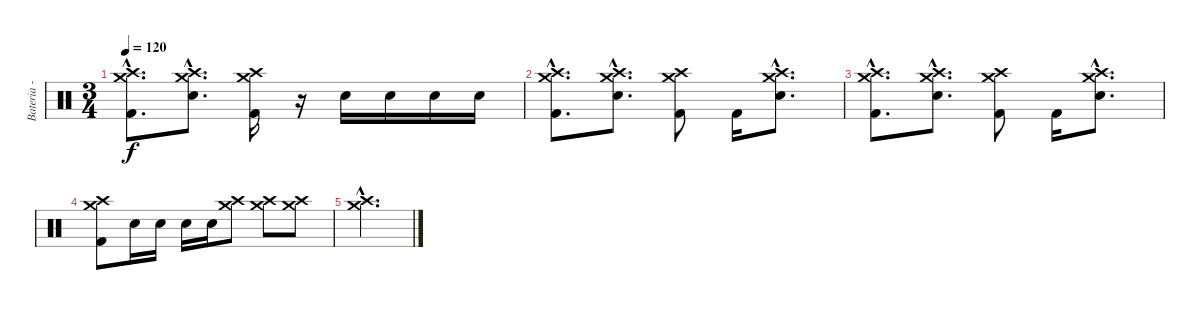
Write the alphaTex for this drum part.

\track ("Bateria - Larzon" "Bateria - ") {instrument percussion}
\staff {score}
\articulation defaults
\ts (3 4)
\tempo 120
\clef neutral
\ks c
("Kick (hit) 2"{hac} "Crash high (hit)"{hac} "Crash medium (hit)"{hac}).8{d dy f} ("Electric Snare (hit)"{hac} "Crash high (hit)"{hac} "Crash medium (hit)"{hac}).8{d} ("Kick (hit) 2" "Crash high (hit)" "Crash medium (hit)").16 r.16 "Electric Snare (hit)".16 "Electric Snare (hit)".16 "Electric Snare (hit)".16 "Electric Snare (hit)".16 |
("Kick (hit) 2"{hac} "Crash medium (hit)"{hac} "Crash high (hit)"{hac}).8{d} ("Electric Snare (hit)"{hac} "Crash medium (hit)"{hac} "Crash high (hit)"{hac}).8{d} ("Kick (hit) 2" "Crash medium (hit)" "Crash high (hit)").8 "Kick (hit) 2".16 ("Electric Snare (hit)"{hac} "Crash medium (hit)"{hac} "Crash high (hit)"{hac}).8{d} |
("Kick (hit) 2"{hac} "Crash medium (hit)"{hac} "Crash high (hit)"{hac}).8{d} ("Electric Snare (hit)"{hac} "Crash medium (hit)"{hac} "Crash high (hit)"{hac}).8{d} ("Kick (hit) 2" "Crash medium (hit)" "Crash high (hit)").8 "Kick (hit) 2".16 ("Electric Snare (hit)"{hac} "Crash medium (hit)"{hac} "Crash high (hit)"{hac}).8{d} |
("Kick (hit) 2" "Crash medium (hit)" "Crash high (hit)").8 "Electric Snare (hit)".16 "Electric Snare (hit)".16 "Electric Snare (hit)".16 "Electric Snare (hit)".16 ("Crash high (hit)" "Crash medium (hit)").8 ("Crash high (hit)" "Crash medium (hit)").8 ("Crash high (hit)" "Crash medium (hit)").8 |
("Crash high (hit)"{hac} "Crash medium (hit)"{hac}).2{d}
